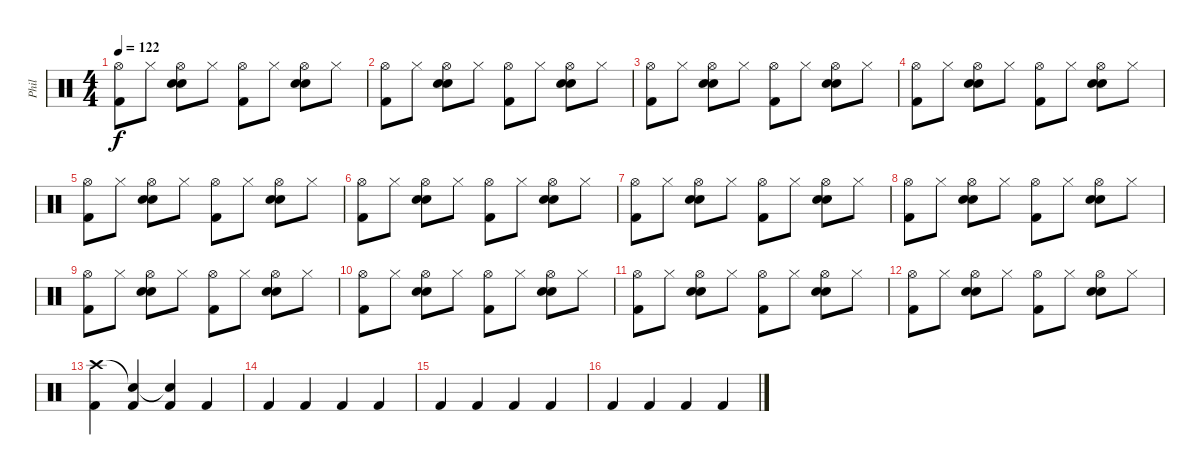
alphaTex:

\track ("Phil" "Phil") {instrument percussion}
\staff {score}
\articulation defaults
\ts (4 4)
\tempo 122
\clef neutral
\ks c
("Hi-Hat (open)" "Kick (hit) 2").8{dy f} "Hi-Hat (closed)".8 ("Hi-Hat (open)" "Snare (hit) 2" "Electric Snare (hit)").8 "Hi-Hat (closed)".8 ("Hi-Hat (open)" "Kick (hit) 2").8 "Hi-Hat (closed)".8 ("Hi-Hat (open)" "Snare (hit) 2" "Electric Snare (hit)").8 "Hi-Hat (closed)".8 |
("Hi-Hat (open)" "Kick (hit) 2").8 "Hi-Hat (closed)".8 ("Hi-Hat (open)" "Snare (hit) 2" "Electric Snare (hit)").8 "Hi-Hat (closed)".8 ("Hi-Hat (open)" "Kick (hit) 2").8 "Hi-Hat (closed)".8 ("Hi-Hat (open)" "Snare (hit) 2" "Electric Snare (hit)").8 "Hi-Hat (closed)".8 |
("Hi-Hat (open)" "Kick (hit) 2").8 "Hi-Hat (closed)".8 ("Hi-Hat (open)" "Snare (hit) 2" "Electric Snare (hit)").8 "Hi-Hat (closed)".8 ("Hi-Hat (open)" "Kick (hit) 2").8 "Hi-Hat (closed)".8 ("Hi-Hat (open)" "Snare (hit) 2" "Electric Snare (hit)").8 "Hi-Hat (closed)".8 |
("Hi-Hat (open)" "Kick (hit) 2").8 "Hi-Hat (closed)".8 ("Hi-Hat (open)" "Snare (hit) 2" "Electric Snare (hit)").8 "Hi-Hat (closed)".8 ("Hi-Hat (open)" "Kick (hit) 2").8 "Hi-Hat (closed)".8 ("Hi-Hat (open)" "Snare (hit) 2" "Electric Snare (hit)").8 "Hi-Hat (closed)".8 |
("Hi-Hat (open)" "Kick (hit) 2").8 "Hi-Hat (closed)".8 ("Hi-Hat (open)" "Snare (hit) 2" "Electric Snare (hit)").8 "Hi-Hat (closed)".8 ("Hi-Hat (open)" "Kick (hit) 2").8 "Hi-Hat (closed)".8 ("Hi-Hat (open)" "Snare (hit) 2" "Electric Snare (hit)").8 "Hi-Hat (closed)".8 |
("Hi-Hat (open)" "Kick (hit) 2").8 "Hi-Hat (closed)".8 ("Hi-Hat (open)" "Snare (hit) 2" "Electric Snare (hit)").8 "Hi-Hat (closed)".8 ("Hi-Hat (open)" "Kick (hit) 2").8 "Hi-Hat (closed)".8 ("Hi-Hat (open)" "Snare (hit) 2" "Electric Snare (hit)").8 "Hi-Hat (closed)".8 |
("Hi-Hat (open)" "Kick (hit) 2").8 "Hi-Hat (closed)".8 ("Hi-Hat (open)" "Snare (hit) 2" "Electric Snare (hit)").8 "Hi-Hat (closed)".8 ("Hi-Hat (open)" "Kick (hit) 2").8 "Hi-Hat (closed)".8 ("Hi-Hat (open)" "Snare (hit) 2" "Electric Snare (hit)").8 "Hi-Hat (closed)".8 |
("Hi-Hat (open)" "Kick (hit) 2").8 "Hi-Hat (closed)".8 ("Hi-Hat (open)" "Snare (hit) 2" "Electric Snare (hit)").8 "Hi-Hat (closed)".8 ("Hi-Hat (open)" "Kick (hit) 2").8 "Hi-Hat (closed)".8 ("Hi-Hat (open)" "Snare (hit) 2" "Electric Snare (hit)").8 "Hi-Hat (closed)".8 |
("Hi-Hat (open)" "Kick (hit) 2").8 "Hi-Hat (closed)".8 ("Hi-Hat (open)" "Snare (hit) 2" "Electric Snare (hit)").8 "Hi-Hat (closed)".8 ("Hi-Hat (open)" "Kick (hit) 2").8 "Hi-Hat (closed)".8 ("Hi-Hat (open)" "Snare (hit) 2" "Electric Snare (hit)").8 "Hi-Hat (closed)".8 |
("Hi-Hat (open)" "Kick (hit) 2").8 "Hi-Hat (closed)".8 ("Hi-Hat (open)" "Snare (hit) 2" "Electric Snare (hit)").8 "Hi-Hat (closed)".8 ("Hi-Hat (open)" "Kick (hit) 2").8 "Hi-Hat (closed)".8 ("Hi-Hat (open)" "Snare (hit) 2" "Electric Snare (hit)").8 "Hi-Hat (closed)".8 |
("Hi-Hat (open)" "Kick (hit) 2").8 "Hi-Hat (closed)".8 ("Hi-Hat (open)" "Snare (hit) 2" "Electric Snare (hit)").8 "Hi-Hat (closed)".8 ("Hi-Hat (open)" "Kick (hit) 2").8 "Hi-Hat (closed)".8 ("Hi-Hat (open)" "Snare (hit) 2" "Electric Snare (hit)").8 "Hi-Hat (closed)".8 |
("Hi-Hat (open)" "Kick (hit) 2").8 "Hi-Hat (closed)".8 ("Hi-Hat (open)" "Snare (hit) 2" "Electric Snare (hit)").8 "Hi-Hat (closed)".8 ("Hi-Hat (open)" "Kick (hit) 2").8 "Hi-Hat (closed)".8 ("Hi-Hat (open)" "Snare (hit) 2" "Electric Snare (hit)").8 "Hi-Hat (closed)".8 |
("Crash high (hit)" "Kick (hit) 2").4 ("Snare (hit)"{t} "Kick (hit) 2").4 ("Snare (hit)"{t} "Kick (hit) 2").4 "Kick (hit) 2".4 |
"Kick (hit) 2".4 "Kick (hit) 2".4 "Kick (hit) 2".4 "Kick (hit) 2".4 |
"Kick (hit) 2".4 "Kick (hit) 2".4 "Kick (hit) 2".4 "Kick (hit) 2".4 |
"Kick (hit) 2".4 "Kick (hit) 2".4 "Kick (hit) 2".4 "Kick (hit) 2".4
